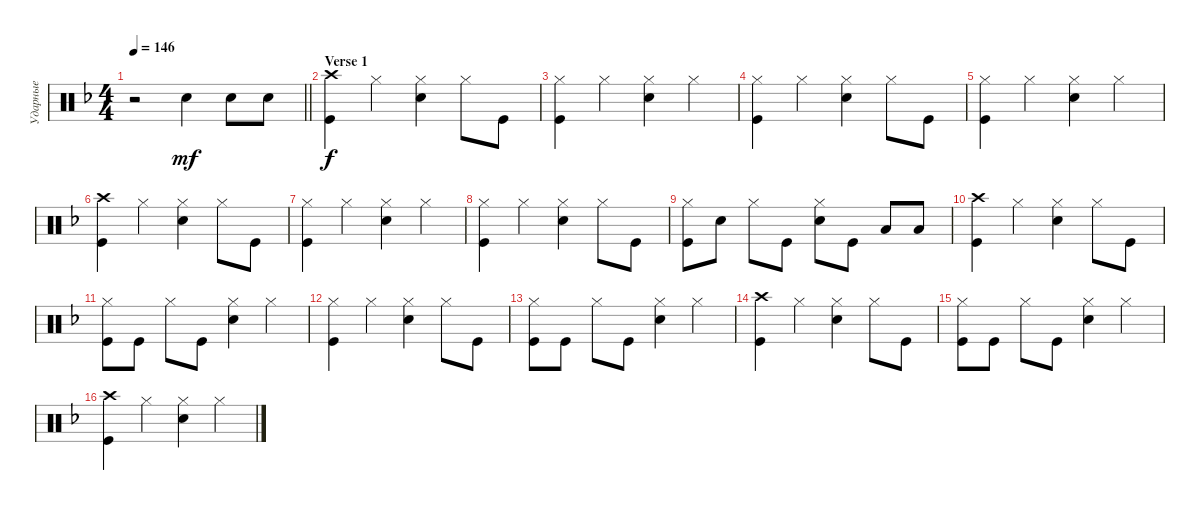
\track ("Ударные" "Ударные") {instrument percussion}
\staff {score}
\articulation defaults
\ts (4 4)
\tempo 146
\clef neutral
\barLineRight lightlight
\ks dminor
r.2{dy mf} "Snare (hit) 2".4 "Snare (hit) 2".8 "Snare (hit) 2".8 |
\section ("" "Verse 1")
("Kick (hit)" "Crash high (hit)").4{dy f} "Hi-Hat (closed)".4 ("Snare (hit) 2" "Hi-Hat (closed)").4 "Hi-Hat (closed)".8 "Kick (hit)".8 |
("Kick (hit)" "Hi-Hat (closed)").4 "Hi-Hat (closed)".4 ("Snare (hit) 2" "Hi-Hat (closed)").4 "Hi-Hat (closed)".4 |
("Kick (hit)" "Hi-Hat (closed)").4 "Hi-Hat (closed)".4 ("Snare (hit) 2" "Hi-Hat (closed)").4 "Hi-Hat (closed)".8 "Kick (hit)".8 |
("Kick (hit)" "Hi-Hat (closed)").4 "Hi-Hat (closed)".4 ("Snare (hit) 2" "Hi-Hat (closed)").4 "Hi-Hat (closed)".4 |
("Kick (hit)" "Crash high (hit)").4 "Hi-Hat (closed)".4 ("Snare (hit) 2" "Hi-Hat (closed)").4 "Hi-Hat (closed)".8 "Kick (hit)".8 |
("Kick (hit)" "Hi-Hat (closed)").4 "Hi-Hat (closed)".4 ("Snare (hit) 2" "Hi-Hat (closed)").4 "Hi-Hat (closed)".4 |
("Kick (hit)" "Hi-Hat (closed)").4 "Hi-Hat (closed)".4 ("Snare (hit) 2" "Hi-Hat (closed)").4 "Hi-Hat (closed)".8 "Kick (hit)".8 |
("Kick (hit)" "Hi-Hat (closed)").8 "Snare (hit) 2".8 "Hi-Hat (closed)".8 "Kick (hit)".8 ("Snare (hit) 2" "Hi-Hat (closed)").8 "Kick (hit)".8 "Low Tom (hit)".8 "Low Tom (hit)".8 |
("Kick (hit)" "Crash high (hit)").4 "Hi-Hat (closed)".4 ("Snare (hit) 2" "Hi-Hat (closed)").4 "Hi-Hat (closed)".8 "Kick (hit)".8 |
("Kick (hit)" "Hi-Hat (closed)").8 "Kick (hit)".8 "Hi-Hat (closed)".8 "Kick (hit)".8 ("Snare (hit) 2" "Hi-Hat (closed)").4 "Hi-Hat (closed)".4 |
("Kick (hit)" "Hi-Hat (closed)").4 "Hi-Hat (closed)".4 ("Snare (hit) 2" "Hi-Hat (closed)").4 "Hi-Hat (closed)".8 "Kick (hit)".8 |
("Kick (hit)" "Hi-Hat (closed)").8 "Kick (hit)".8 "Hi-Hat (closed)".8 "Kick (hit)".8 ("Snare (hit) 2" "Hi-Hat (closed)").4 "Hi-Hat (closed)".4 |
("Kick (hit)" "Crash high (hit)").4 "Hi-Hat (closed)".4 ("Snare (hit) 2" "Hi-Hat (closed)").4 "Hi-Hat (closed)".8 "Kick (hit)".8 |
("Kick (hit)" "Hi-Hat (closed)").8 "Kick (hit)".8 "Hi-Hat (closed)".8 "Kick (hit)".8 ("Snare (hit) 2" "Hi-Hat (closed)").4 "Hi-Hat (closed)".4 |
("Kick (hit)" "Crash high (hit)").4 "Hi-Hat (closed)".4 ("Snare (hit) 2" "Hi-Hat (closed)").4 "Hi-Hat (closed)".4
